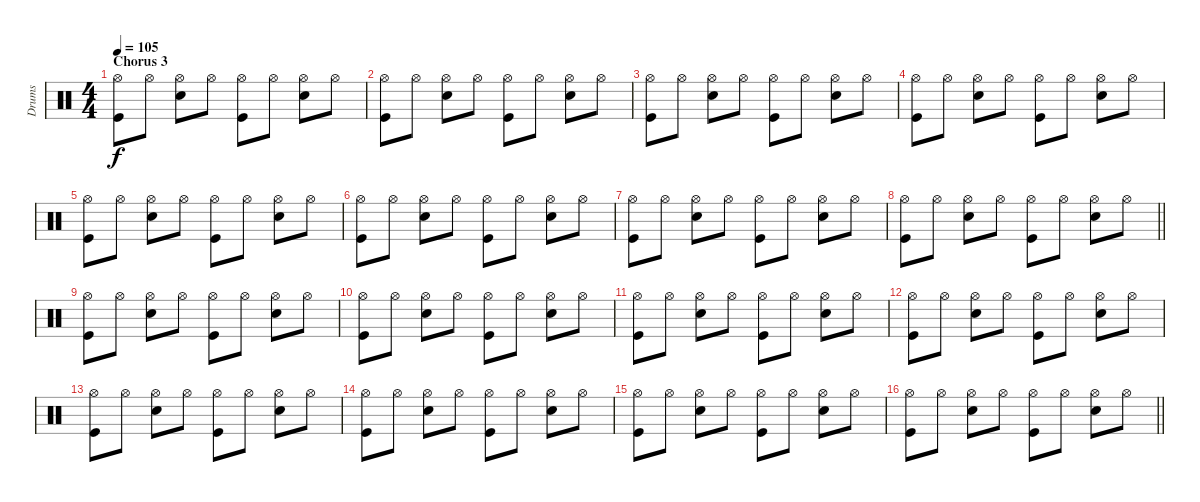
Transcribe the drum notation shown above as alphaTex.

\track ("Drums" "Drums") {instrument percussion}
\staff {score}
\articulation defaults
\ts (4 4)
\section ("" "Chorus 3")
\tempo 105
\clef neutral
\ks c
("Kick (hit)" "Hi-Hat (open)").8{dy f} "Hi-Hat (open)".8 ("Electric Snare (hit)" "Hi-Hat (open)").8 "Hi-Hat (open)".8 ("Kick (hit)" "Hi-Hat (open)").8 "Hi-Hat (open)".8 ("Electric Snare (hit)" "Hi-Hat (open)").8 "Hi-Hat (open)".8 |
("Kick (hit)" "Hi-Hat (open)").8 "Hi-Hat (open)".8 ("Electric Snare (hit)" "Hi-Hat (open)").8 "Hi-Hat (open)".8 ("Kick (hit)" "Hi-Hat (open)").8 "Hi-Hat (open)".8 ("Electric Snare (hit)" "Hi-Hat (open)").8 "Hi-Hat (open)".8 |
("Kick (hit)" "Hi-Hat (open)").8 "Hi-Hat (open)".8 ("Electric Snare (hit)" "Hi-Hat (open)").8 "Hi-Hat (open)".8 ("Kick (hit)" "Hi-Hat (open)").8 "Hi-Hat (open)".8 ("Electric Snare (hit)" "Hi-Hat (open)").8 "Hi-Hat (open)".8 |
("Kick (hit)" "Hi-Hat (open)").8 "Hi-Hat (open)".8 ("Electric Snare (hit)" "Hi-Hat (open)").8 "Hi-Hat (open)".8 ("Kick (hit)" "Hi-Hat (open)").8 "Hi-Hat (open)".8 ("Electric Snare (hit)" "Hi-Hat (open)").8 "Hi-Hat (open)".8 |
("Kick (hit)" "Hi-Hat (open)").8 "Hi-Hat (open)".8 ("Electric Snare (hit)" "Hi-Hat (open)").8 "Hi-Hat (open)".8 ("Kick (hit)" "Hi-Hat (open)").8 "Hi-Hat (open)".8 ("Electric Snare (hit)" "Hi-Hat (open)").8 "Hi-Hat (open)".8 |
("Kick (hit)" "Hi-Hat (open)").8 "Hi-Hat (open)".8 ("Electric Snare (hit)" "Hi-Hat (open)").8 "Hi-Hat (open)".8 ("Kick (hit)" "Hi-Hat (open)").8 "Hi-Hat (open)".8 ("Electric Snare (hit)" "Hi-Hat (open)").8 "Hi-Hat (open)".8 |
("Kick (hit)" "Hi-Hat (open)").8 "Hi-Hat (open)".8 ("Electric Snare (hit)" "Hi-Hat (open)").8 "Hi-Hat (open)".8 ("Kick (hit)" "Hi-Hat (open)").8 "Hi-Hat (open)".8 ("Electric Snare (hit)" "Hi-Hat (open)").8 "Hi-Hat (open)".8 |
\barLineRight lightlight
("Kick (hit)" "Hi-Hat (open)").8 "Hi-Hat (open)".8 ("Electric Snare (hit)" "Hi-Hat (open)").8 "Hi-Hat (open)".8 ("Kick (hit)" "Hi-Hat (open)").8 "Hi-Hat (open)".8 ("Electric Snare (hit)" "Hi-Hat (open)").8 "Hi-Hat (open)".8 |
("Kick (hit)" "Hi-Hat (open)").8 "Hi-Hat (open)".8 ("Electric Snare (hit)" "Hi-Hat (open)").8 "Hi-Hat (open)".8 ("Kick (hit)" "Hi-Hat (open)").8 "Hi-Hat (open)".8 ("Electric Snare (hit)" "Hi-Hat (open)").8 "Hi-Hat (open)".8 |
("Kick (hit)" "Hi-Hat (open)").8 "Hi-Hat (open)".8 ("Electric Snare (hit)" "Hi-Hat (open)").8 "Hi-Hat (open)".8 ("Kick (hit)" "Hi-Hat (open)").8 "Hi-Hat (open)".8 ("Electric Snare (hit)" "Hi-Hat (open)").8 "Hi-Hat (open)".8 |
("Kick (hit)" "Hi-Hat (open)").8 "Hi-Hat (open)".8 ("Electric Snare (hit)" "Hi-Hat (open)").8 "Hi-Hat (open)".8 ("Kick (hit)" "Hi-Hat (open)").8 "Hi-Hat (open)".8 ("Electric Snare (hit)" "Hi-Hat (open)").8 "Hi-Hat (open)".8 |
("Kick (hit)" "Hi-Hat (open)").8 "Hi-Hat (open)".8 ("Electric Snare (hit)" "Hi-Hat (open)").8 "Hi-Hat (open)".8 ("Kick (hit)" "Hi-Hat (open)").8 "Hi-Hat (open)".8 ("Electric Snare (hit)" "Hi-Hat (open)").8 "Hi-Hat (open)".8 |
("Kick (hit)" "Hi-Hat (open)").8 "Hi-Hat (open)".8 ("Electric Snare (hit)" "Hi-Hat (open)").8 "Hi-Hat (open)".8 ("Kick (hit)" "Hi-Hat (open)").8 "Hi-Hat (open)".8 ("Electric Snare (hit)" "Hi-Hat (open)").8 "Hi-Hat (open)".8 |
("Kick (hit)" "Hi-Hat (open)").8 "Hi-Hat (open)".8 ("Electric Snare (hit)" "Hi-Hat (open)").8 "Hi-Hat (open)".8 ("Kick (hit)" "Hi-Hat (open)").8 "Hi-Hat (open)".8 ("Electric Snare (hit)" "Hi-Hat (open)").8 "Hi-Hat (open)".8 |
("Kick (hit)" "Hi-Hat (open)").8 "Hi-Hat (open)".8 ("Electric Snare (hit)" "Hi-Hat (open)").8 "Hi-Hat (open)".8 ("Kick (hit)" "Hi-Hat (open)").8 "Hi-Hat (open)".8 ("Electric Snare (hit)" "Hi-Hat (open)").8 "Hi-Hat (open)".8 |
\barLineRight lightlight
("Kick (hit)" "Hi-Hat (open)").8 "Hi-Hat (open)".8 ("Electric Snare (hit)" "Hi-Hat (open)").8 "Hi-Hat (open)".8 ("Kick (hit)" "Hi-Hat (open)").8 "Hi-Hat (open)".8 ("Electric Snare (hit)" "Hi-Hat (open)").8 "Hi-Hat (open)".8
